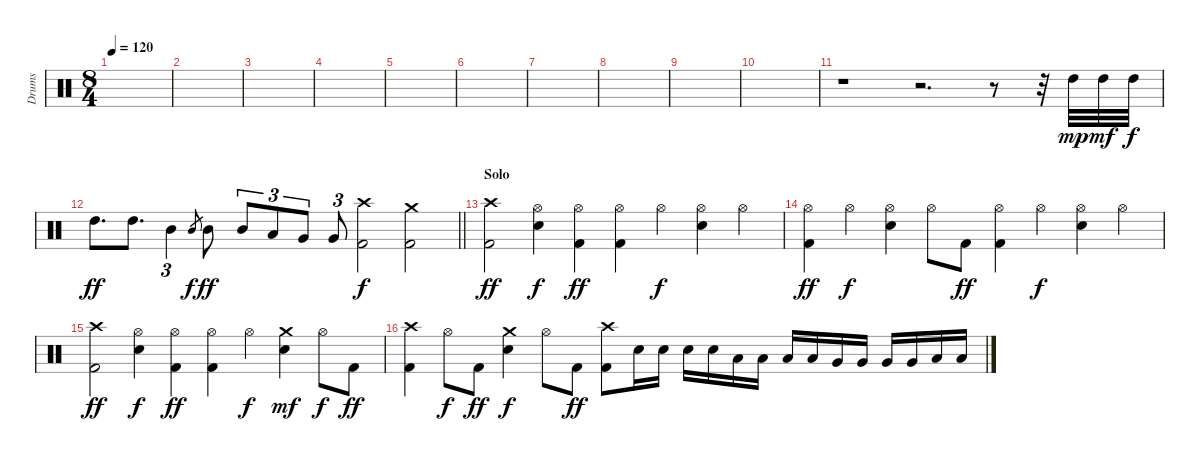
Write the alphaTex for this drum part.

\track ("Drums" "Drums") {instrument percussion}
\staff {score}
\articulation defaults
\ts (8 4)
\tempo 120
\clef neutral
\ks c
|
|
|
|
|
|
|
|
|
|
r.1 r.2{d} r.8 r.32 "High Tom (hit)".32{dy mp} "High Tom (hit)".32{dy mf} "High Tom (hit)".32{dy f} |
\barLineRight lightlight "High Tom (hit)".8{d dy ff} "High Tom (hit)".8{d} "Mid Tom (hit)".4{tu (3 2)} "Mid Tom (hit)".8{gr dy f} "Mid Tom (hit)".8{dy ff} "Mid Tom (hit)".8{tu (3 2)} "Low Tom (hit)".8{tu (3 2)} "Very Low Tom (hit)".8{tu (3 2)} "Very Low Tom (hit)".8{tu (3 2)}
("Crash high (hit)" "Kick (hit) 2").2{dy f} ("Crash medium (hit)" "Kick (hit) 2").2 |
\section ("" "Solo")
("Crash high (hit)" "Kick (hit) 2").2{dy ff} ("Hi-Hat (open)" "Electric Snare (hit)").4{dy f} ("Hi-Hat (open)" "Kick (hit) 2").4{dy ff} ("Hi-Hat (open)" "Kick (hit) 2").4 "Hi-Hat (open)".4{dy f} ("Hi-Hat (open)" "Electric Snare (hit)").4 "Hi-Hat (open)".4 |
("Hi-Hat (open)" "Kick (hit) 2").4{dy ff} "Hi-Hat (open)".4{dy f} ("Hi-Hat (open)" "Electric Snare (hit)").4 "Hi-Hat (open)".8 "Kick (hit) 2".8{dy ff} ("Hi-Hat (open)" "Kick (hit) 2").4 "Hi-Hat (open)".4{dy f} ("Hi-Hat (open)" "Electric Snare (hit)").4 "Hi-Hat (open)".4 |
("Crash high (hit)" "Kick (hit) 2").2{dy ff} ("Hi-Hat (open)" "Electric Snare (hit)").4{dy f} ("Hi-Hat (open)" "Kick (hit) 2").4{dy ff} ("Hi-Hat (open)" "Kick (hit) 2").4 "Hi-Hat (open)".4{dy f} ("Crash medium (hit)" "Electric Snare (hit)").4{dy mf} "Hi-Hat (open)".8{dy f} "Kick (hit) 2".8{dy ff} |
("Crash high (hit)" "Kick (hit) 2").4 "Hi-Hat (open)".8{dy f} "Kick (hit) 2".8{dy ff} ("Crash medium (hit)" "Electric Snare (hit)").4{dy f} "Hi-Hat (open)".8 "Kick (hit) 2".8{dy ff} ("Crash high (hit)" "Kick (hit) 2").8 "Electric Snare (hit)".16 "Electric Snare (hit)".16 "Electric Snare (hit)".16 "Electric Snare (hit)".16 "Low Tom (hit)".16 "Low Tom (hit)".16 "Low Tom (hit)".16 "Low Tom (hit)".16 "Very Low Tom (hit)".16 "Very Low Tom (hit)".16 "Very Low Tom (hit)".16 "Very Low Tom (hit)".16 "Low Floor Tom (hit)".16 "Low Floor Tom (hit)".16
